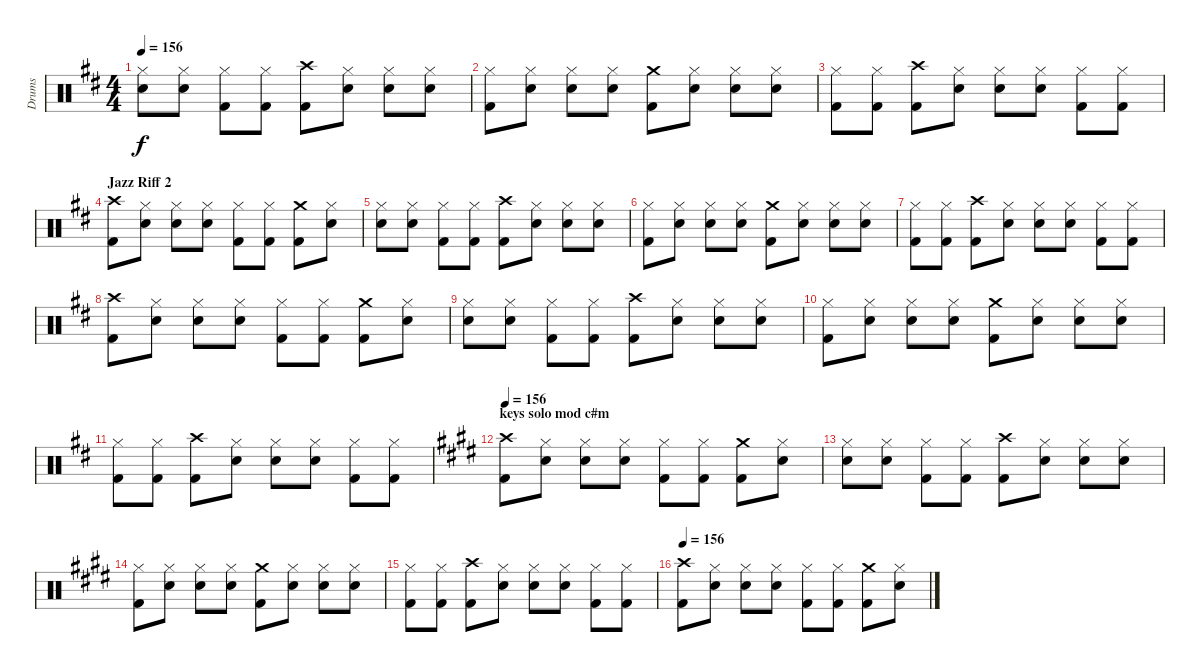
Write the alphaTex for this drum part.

\track ("Drums" "Drums") {instrument percussion}
\staff {score}
\articulation defaults
\ts (4 4)
\tempo 156
\clef neutral
\ks bminor
("Hi-Hat (closed)" "Electric Snare (hit)").8{dy f} ("Hi-Hat (closed)" "Electric Snare (hit)").8 ("Hi-Hat (closed)" "Kick (hit) 2").8 ("Hi-Hat (closed)" "Kick (hit) 2").8 ("Crash high (hit)" "Kick (hit) 2").8 ("Hi-Hat (closed)" "Electric Snare (hit)").8 ("Hi-Hat (closed)" "Electric Snare (hit)").8 ("Hi-Hat (closed)" "Electric Snare (hit)").8 |
("Hi-Hat (closed)" "Kick (hit) 2").8 ("Hi-Hat (closed)" "Electric Snare (hit)").8 ("Hi-Hat (closed)" "Electric Snare (hit)").8 ("Hi-Hat (closed)" "Electric Snare (hit)").8 ("Crash medium (hit)" "Kick (hit) 2").8 ("Hi-Hat (closed)" "Electric Snare (hit)").8 ("Hi-Hat (closed)" "Electric Snare (hit)").8 ("Hi-Hat (closed)" "Electric Snare (hit)").8 |
("Hi-Hat (closed)" "Kick (hit) 2").8 ("Hi-Hat (closed)" "Kick (hit) 2").8 ("Crash high (hit)" "Kick (hit) 2").8 ("Hi-Hat (closed)" "Electric Snare (hit)").8 ("Hi-Hat (closed)" "Electric Snare (hit)").8 ("Hi-Hat (closed)" "Electric Snare (hit)").8 ("Hi-Hat (closed)" "Kick (hit) 2").8 ("Hi-Hat (closed)" "Kick (hit) 2").8 |
\section ("" "Jazz Riff 2")
("Crash high (hit)" "Kick (hit) 2").8 ("Hi-Hat (closed)" "Electric Snare (hit)").8 ("Hi-Hat (closed)" "Electric Snare (hit)").8 ("Hi-Hat (closed)" "Electric Snare (hit)").8 ("Hi-Hat (closed)" "Kick (hit) 2").8 ("Hi-Hat (closed)" "Kick (hit) 2").8 ("Crash medium (hit)" "Kick (hit) 2").8 ("Hi-Hat (closed)" "Electric Snare (hit)").8 |
("Hi-Hat (closed)" "Electric Snare (hit)").8 ("Hi-Hat (closed)" "Electric Snare (hit)").8 ("Hi-Hat (closed)" "Kick (hit) 2").8 ("Hi-Hat (closed)" "Kick (hit) 2").8 ("Crash high (hit)" "Kick (hit) 2").8 ("Hi-Hat (closed)" "Electric Snare (hit)").8 ("Hi-Hat (closed)" "Electric Snare (hit)").8 ("Hi-Hat (closed)" "Electric Snare (hit)").8 |
("Hi-Hat (closed)" "Kick (hit) 2").8 ("Hi-Hat (closed)" "Electric Snare (hit)").8 ("Hi-Hat (closed)" "Electric Snare (hit)").8 ("Hi-Hat (closed)" "Electric Snare (hit)").8 ("Crash medium (hit)" "Kick (hit) 2").8 ("Hi-Hat (closed)" "Electric Snare (hit)").8 ("Hi-Hat (closed)" "Electric Snare (hit)").8 ("Hi-Hat (closed)" "Electric Snare (hit)").8 |
("Hi-Hat (closed)" "Kick (hit) 2").8 ("Hi-Hat (closed)" "Kick (hit) 2").8 ("Crash high (hit)" "Kick (hit) 2").8 ("Hi-Hat (closed)" "Electric Snare (hit)").8 ("Hi-Hat (closed)" "Electric Snare (hit)").8 ("Hi-Hat (closed)" "Electric Snare (hit)").8 ("Hi-Hat (closed)" "Kick (hit) 2").8 ("Hi-Hat (closed)" "Kick (hit) 2").8 |
("Crash high (hit)" "Kick (hit) 2").8 ("Hi-Hat (closed)" "Electric Snare (hit)").8 ("Hi-Hat (closed)" "Electric Snare (hit)").8 ("Hi-Hat (closed)" "Electric Snare (hit)").8 ("Hi-Hat (closed)" "Kick (hit) 2").8 ("Hi-Hat (closed)" "Kick (hit) 2").8 ("Crash medium (hit)" "Kick (hit) 2").8 ("Hi-Hat (closed)" "Electric Snare (hit)").8 |
("Hi-Hat (closed)" "Electric Snare (hit)").8 ("Hi-Hat (closed)" "Electric Snare (hit)").8 ("Hi-Hat (closed)" "Kick (hit) 2").8 ("Hi-Hat (closed)" "Kick (hit) 2").8 ("Crash high (hit)" "Kick (hit) 2").8 ("Hi-Hat (closed)" "Electric Snare (hit)").8 ("Hi-Hat (closed)" "Electric Snare (hit)").8 ("Hi-Hat (closed)" "Electric Snare (hit)").8 |
("Hi-Hat (closed)" "Kick (hit) 2").8 ("Hi-Hat (closed)" "Electric Snare (hit)").8 ("Hi-Hat (closed)" "Electric Snare (hit)").8 ("Hi-Hat (closed)" "Electric Snare (hit)").8 ("Crash medium (hit)" "Kick (hit) 2").8 ("Hi-Hat (closed)" "Electric Snare (hit)").8 ("Hi-Hat (closed)" "Electric Snare (hit)").8 ("Hi-Hat (closed)" "Electric Snare (hit)").8 |
("Hi-Hat (closed)" "Kick (hit) 2").8 ("Hi-Hat (closed)" "Kick (hit) 2").8 ("Crash high (hit)" "Kick (hit) 2").8 ("Hi-Hat (closed)" "Electric Snare (hit)").8 ("Hi-Hat (closed)" "Electric Snare (hit)").8 ("Hi-Hat (closed)" "Electric Snare (hit)").8 ("Hi-Hat (closed)" "Kick (hit) 2").8 ("Hi-Hat (closed)" "Kick (hit) 2").8 |
\section ("" "keys solo mod c#m")
\tempo 156
\ks c#minor
("Crash high (hit)" "Kick (hit) 2").8 ("Hi-Hat (closed)" "Electric Snare (hit)").8 ("Hi-Hat (closed)" "Electric Snare (hit)").8 ("Hi-Hat (closed)" "Electric Snare (hit)").8 ("Hi-Hat (closed)" "Kick (hit) 2").8 ("Hi-Hat (closed)" "Kick (hit) 2").8 ("Crash medium (hit)" "Kick (hit) 2").8 ("Hi-Hat (closed)" "Electric Snare (hit)").8 |
("Hi-Hat (closed)" "Electric Snare (hit)").8 ("Hi-Hat (closed)" "Electric Snare (hit)").8 ("Hi-Hat (closed)" "Kick (hit) 2").8 ("Hi-Hat (closed)" "Kick (hit) 2").8 ("Crash high (hit)" "Kick (hit) 2").8 ("Hi-Hat (closed)" "Electric Snare (hit)").8 ("Hi-Hat (closed)" "Electric Snare (hit)").8 ("Hi-Hat (closed)" "Electric Snare (hit)").8 |
("Hi-Hat (closed)" "Kick (hit) 2").8 ("Hi-Hat (closed)" "Electric Snare (hit)").8 ("Hi-Hat (closed)" "Electric Snare (hit)").8 ("Hi-Hat (closed)" "Electric Snare (hit)").8 ("Crash medium (hit)" "Kick (hit) 2").8 ("Hi-Hat (closed)" "Electric Snare (hit)").8 ("Hi-Hat (closed)" "Electric Snare (hit)").8 ("Hi-Hat (closed)" "Electric Snare (hit)").8 |
("Hi-Hat (closed)" "Kick (hit) 2").8 ("Hi-Hat (closed)" "Kick (hit) 2").8 ("Crash high (hit)" "Kick (hit) 2").8 ("Hi-Hat (closed)" "Electric Snare (hit)").8 ("Hi-Hat (closed)" "Electric Snare (hit)").8 ("Hi-Hat (closed)" "Electric Snare (hit)").8 ("Hi-Hat (closed)" "Kick (hit) 2").8 ("Hi-Hat (closed)" "Kick (hit) 2").8 |
\tempo 156
("Crash high (hit)" "Kick (hit) 2").8 ("Hi-Hat (closed)" "Electric Snare (hit)").8 ("Hi-Hat (closed)" "Electric Snare (hit)").8 ("Hi-Hat (closed)" "Electric Snare (hit)").8 ("Hi-Hat (closed)" "Kick (hit) 2").8 ("Hi-Hat (closed)" "Kick (hit) 2").8 ("Crash medium (hit)" "Kick (hit) 2").8 ("Hi-Hat (closed)" "Electric Snare (hit)").8
